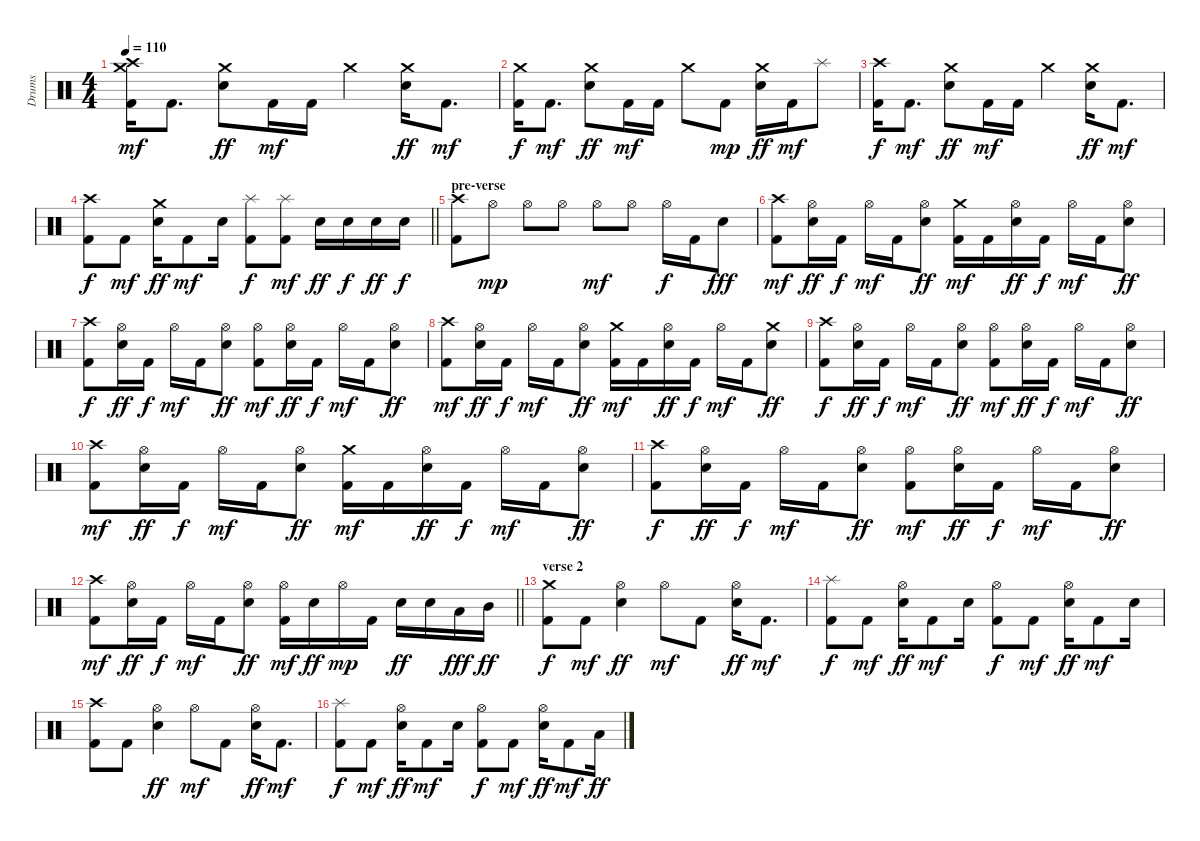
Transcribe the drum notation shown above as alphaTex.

\track ("Drums" "Drums") {instrument percussion}
\staff {score}
\articulation defaults
\ts (4 4)
\tempo 110
\clef neutral
\ks c
("Crash medium (hit)" "Crash high (hit)" "Kick (hit) 2").16{dy mf} "Kick (hit) 2".8{d} ("Crash medium (hit)" "Snare (hit) 2").8{dy ff} "Kick (hit) 2".16{dy mf} "Kick (hit) 2".16 "Crash medium (hit)".4 ("Crash medium (hit)" "Snare (hit) 2").16{dy ff} "Kick (hit) 2".8{d dy mf} |
("Crash medium (hit)" "Kick (hit) 2").16{dy f} "Kick (hit) 2".8{d dy mf} ("Crash medium (hit)" "Snare (hit) 2").8{dy ff} "Kick (hit) 2".16{dy mf} "Kick (hit) 2".16 "Crash medium (hit)".8 "Kick (hit) 2".8{dy mp} ("Crash medium (hit)" "Snare (hit) 2").16{dy ff} "Kick (hit) 2".16{dy mf} "Splash (hit)".8 |
("Crash high (hit)" "Kick (hit) 2").16{dy f} "Kick (hit) 2".8{d dy mf} ("Crash medium (hit)" "Snare (hit) 2").8{dy ff} "Kick (hit) 2".16{dy mf} "Kick (hit) 2".16 "Crash medium (hit)".4 ("Crash medium (hit)" "Snare (hit) 2").16{dy ff} "Kick (hit) 2".8{d dy mf} |
\barLineRight lightlight
("Crash high (hit)" "Kick (hit) 2").8{dy f} "Kick (hit) 2".8{dy mf} ("Crash medium (hit)" "Snare (hit) 2").16{dy ff} "Kick (hit) 2".8{dy mf} "Snare (hit) 2".16 ("Splash (hit)" "Kick (hit) 2").8{dy f} ("Splash (hit)" "Kick (hit) 2").8{dy mf} "Snare (hit) 2".16{dy ff} "Snare (hit) 2".16{dy f} "Snare (hit) 2".16{dy ff} "Snare (hit) 2".16{dy f} |
\section ("" "pre-verse")
("Crash high (hit)" "Kick (hit) 2").8 "Hi-Hat (open)".8{dy mp} "Hi-Hat (open)".8 "Hi-Hat (open)".8 "Hi-Hat (open)".8{dy mf} "Hi-Hat (open)".8 "Hi-Hat (open)".16{dy f} "Kick (hit) 2".16 "Snare (hit) 2".8{dy fff} |
("Crash high (hit)" "Kick (hit) 2").8{dy mf} ("Hi-Hat (open)" "Snare (hit) 2").16{dy ff} "Kick (hit) 2".16{dy f} "Hi-Hat (open)".16{dy mf} "Kick (hit) 2".16 ("Hi-Hat (open)" "Snare (hit) 2").8{dy ff} ("Crash medium (hit)" "Kick (hit) 2").16{dy mf} "Kick (hit) 2".16 ("Hi-Hat (open)" "Snare (hit) 2").16{dy ff} "Kick (hit) 2".16{dy f} "Hi-Hat (open)".16{dy mf} "Kick (hit) 2".16 ("Hi-Hat (open)" "Snare (hit) 2").8{dy ff} |
("Crash high (hit)" "Kick (hit) 2").8{dy f} ("Hi-Hat (open)" "Snare (hit) 2").16{dy ff} "Kick (hit) 2".16{dy f} "Hi-Hat (open)".16{dy mf} "Kick (hit) 2".16 ("Hi-Hat (open)" "Snare (hit) 2").8{dy ff} ("Hi-Hat (open)" "Kick (hit) 2").8{dy mf} ("Hi-Hat (open)" "Snare (hit) 2").16{dy ff} "Kick (hit) 2".16{dy f} "Hi-Hat (open)".16{dy mf} "Kick (hit) 2".16 ("Hi-Hat (open)" "Snare (hit) 2").8{dy ff} |
("Crash high (hit)" "Kick (hit) 2").8{dy mf} ("Hi-Hat (open)" "Snare (hit) 2").16{dy ff} "Kick (hit) 2".16{dy f} "Hi-Hat (open)".16{dy mf} "Kick (hit) 2".16 ("Hi-Hat (open)" "Snare (hit) 2").8{dy ff} ("Crash medium (hit)" "Kick (hit) 2").16{dy mf} "Kick (hit) 2".16 ("Hi-Hat (open)" "Snare (hit) 2").16{dy ff} "Kick (hit) 2".16{dy f} "Hi-Hat (open)".16{dy mf} "Kick (hit) 2".16 ("Crash medium (hit)" "Snare (hit) 2").8{dy ff} |
("Crash high (hit)" "Kick (hit) 2").8{dy f} ("Hi-Hat (open)" "Snare (hit) 2").16{dy ff} "Kick (hit) 2".16{dy f} "Hi-Hat (open)".16{dy mf} "Kick (hit) 2".16 ("Hi-Hat (open)" "Snare (hit) 2").8{dy ff} ("Hi-Hat (open)" "Kick (hit) 2").8{dy mf} ("Hi-Hat (open)" "Snare (hit) 2").16{dy ff} "Kick (hit) 2".16{dy f} "Hi-Hat (open)".16{dy mf} "Kick (hit) 2".16 ("Hi-Hat (open)" "Snare (hit) 2").8{dy ff} |
("Crash high (hit)" "Kick (hit) 2").8{dy mf} ("Hi-Hat (open)" "Snare (hit) 2").16{dy ff} "Kick (hit) 2".16{dy f} "Hi-Hat (open)".16{dy mf} "Kick (hit) 2".16 ("Hi-Hat (open)" "Snare (hit) 2").8{dy ff} ("Crash medium (hit)" "Kick (hit) 2").16{dy mf} "Kick (hit) 2".16 ("Hi-Hat (open)" "Snare (hit) 2").16{dy ff} "Kick (hit) 2".16{dy f} "Hi-Hat (open)".16{dy mf} "Kick (hit) 2".16 ("Hi-Hat (open)" "Snare (hit) 2").8{dy ff} |
("Crash high (hit)" "Kick (hit) 2").8{dy f} ("Hi-Hat (open)" "Snare (hit) 2").16{dy ff} "Kick (hit) 2".16{dy f} "Hi-Hat (open)".16{dy mf} "Kick (hit) 2".16 ("Hi-Hat (open)" "Snare (hit) 2").8{dy ff} ("Hi-Hat (open)" "Kick (hit) 2").8{dy mf} ("Hi-Hat (open)" "Snare (hit) 2").16{dy ff} "Kick (hit) 2".16{dy f} "Hi-Hat (open)".16{dy mf} "Kick (hit) 2".16 ("Hi-Hat (open)" "Snare (hit) 2").8{dy ff} |
\barLineRight lightlight
("Crash high (hit)" "Kick (hit) 2").8{dy mf} ("Hi-Hat (open)" "Snare (hit) 2").16{dy ff} "Kick (hit) 2".16{dy f} "Hi-Hat (open)".16{dy mf} "Kick (hit) 2".16 ("Hi-Hat (open)" "Snare (hit) 2").8{dy ff} ("Hi-Hat (open)" "Kick (hit) 2").16{dy mf} "Snare (hit) 2".16{dy ff} "Hi-Hat (open)".16{dy mp} "Kick (hit) 2".16 "Snare (hit) 2".16{dy ff} "Snare (hit) 2".16 "Low Tom (hit)".16{dy fff} "Mid Tom (hit)".16{dy ff} |
\section ("" "verse 2")
("Crash medium (hit)" "Kick (hit) 2").8{dy f} "Kick (hit) 2".8{dy mf} ("Hi-Hat (open)" "Snare (hit) 2").4{dy ff} "Hi-Hat (open)".8{dy mf} "Kick (hit) 2".8 ("Hi-Hat (open)" "Snare (hit) 2").16{dy ff} "Kick (hit) 2".8{d dy mf} |
("Splash (hit)" "Kick (hit) 2").8{dy f} "Kick (hit) 2".8{dy mf} ("Hi-Hat (open)" "Snare (hit) 2").16{dy ff} "Kick (hit) 2".8{dy mf} "Snare (hit) 2".16 ("Hi-Hat (open)" "Kick (hit) 2").8{dy f} "Kick (hit) 2".8{dy mf} ("Hi-Hat (open)" "Snare (hit) 2").16{dy ff} "Kick (hit) 2".8{dy mf} "Snare (hit) 2".16 |
("Crash high (hit)" "Kick (hit) 2").8 "Kick (hit) 2".8 ("Hi-Hat (open)" "Snare (hit) 2").4{dy ff} "Hi-Hat (open)".8{dy mf} "Kick (hit) 2".8 ("Hi-Hat (open)" "Snare (hit) 2").16{dy ff} "Kick (hit) 2".8{d dy mf} |
("Splash (hit)" "Kick (hit) 2").8{dy f} "Kick (hit) 2".8{dy mf} ("Hi-Hat (open)" "Snare (hit) 2").16{dy ff} "Kick (hit) 2".8{dy mf} "Snare (hit) 2".16 ("Hi-Hat (open)" "Kick (hit) 2").8{dy f} "Kick (hit) 2".8{dy mf} ("Hi-Hat (open)" "Snare (hit) 2").16{dy ff} "Kick (hit) 2".8{dy mf} "Low Tom (hit)".16{dy ff}
